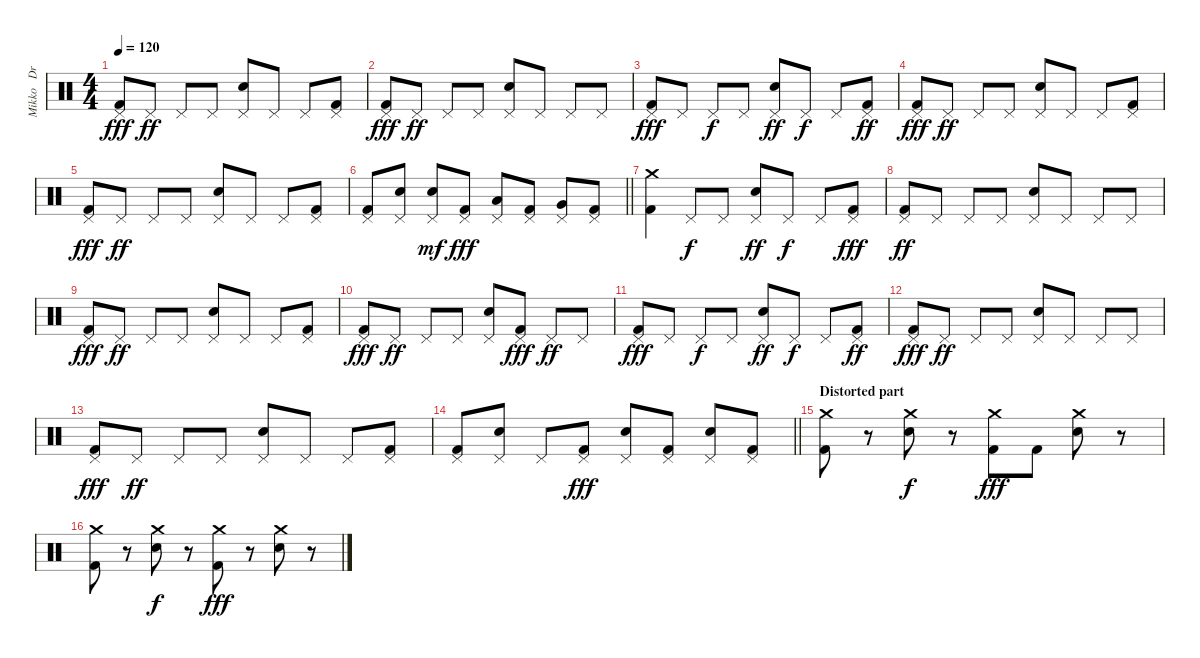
\track ("Mikko   Drums" "Mikko   Dr") {instrument percussion}
\staff {score}
\articulation defaults
\ts (4 4)
\tempo 120
\clef neutral
\ks c
("Pedal Hi-Hat (hit)" "Kick (hit) 2").8{dy fff} "Pedal Hi-Hat (hit)".8{dy ff} "Pedal Hi-Hat (hit)".8 "Pedal Hi-Hat (hit)".8 ("Pedal Hi-Hat (hit)" "Snare (hit) 2").8 "Pedal Hi-Hat (hit)".8 "Pedal Hi-Hat (hit)".8 ("Pedal Hi-Hat (hit)" "Kick (hit) 2").8 |
("Pedal Hi-Hat (hit)" "Kick (hit) 2").8{dy fff} "Pedal Hi-Hat (hit)".8{dy ff} "Pedal Hi-Hat (hit)".8 "Pedal Hi-Hat (hit)".8 ("Pedal Hi-Hat (hit)" "Snare (hit) 2").8 "Pedal Hi-Hat (hit)".8 "Pedal Hi-Hat (hit)".8 "Pedal Hi-Hat (hit)".8 |
("Pedal Hi-Hat (hit)" "Kick (hit) 2").8{dy fff} "Pedal Hi-Hat (hit)".8 "Pedal Hi-Hat (hit)".8{dy f} "Pedal Hi-Hat (hit)".8 ("Pedal Hi-Hat (hit)" "Snare (hit) 2").8{dy ff} "Pedal Hi-Hat (hit)".8{dy f} "Pedal Hi-Hat (hit)".8 ("Pedal Hi-Hat (hit)" "Kick (hit) 2").8{dy ff} |
("Pedal Hi-Hat (hit)" "Kick (hit) 2").8{dy fff} "Pedal Hi-Hat (hit)".8{dy ff} "Pedal Hi-Hat (hit)".8 "Pedal Hi-Hat (hit)".8 ("Pedal Hi-Hat (hit)" "Snare (hit) 2").8 "Pedal Hi-Hat (hit)".8 "Pedal Hi-Hat (hit)".8 ("Pedal Hi-Hat (hit)" "Kick (hit) 2").8 |
("Pedal Hi-Hat (hit)" "Kick (hit) 2").8{dy fff} "Pedal Hi-Hat (hit)".8{dy ff} "Pedal Hi-Hat (hit)".8 "Pedal Hi-Hat (hit)".8 ("Pedal Hi-Hat (hit)" "Snare (hit) 2").8 "Pedal Hi-Hat (hit)".8 "Pedal Hi-Hat (hit)".8 ("Pedal Hi-Hat (hit)" "Kick (hit) 2").8 |
\barLineRight lightlight
("Pedal Hi-Hat (hit)" "Kick (hit) 2").8 ("Pedal Hi-Hat (hit)" "Snare (hit) 2").8 ("Pedal Hi-Hat (hit)" "Snare (hit) 2").8{dy mf} ("Pedal Hi-Hat (hit)" "Kick (hit) 2").8{dy fff} ("Pedal Hi-Hat (hit)" "Low Tom (hit)").8 ("Pedal Hi-Hat (hit)" "Kick (hit) 2").8 ("Pedal Hi-Hat (hit)" "Very Low Tom (hit)").8 ("Pedal Hi-Hat (hit)" "Kick (hit) 2").8 |
("Crash medium (hit)" "Kick (hit) 2").4 "Pedal Hi-Hat (hit)".8{dy f} "Pedal Hi-Hat (hit)".8 ("Pedal Hi-Hat (hit)" "Snare (hit) 2").8{dy ff} "Pedal Hi-Hat (hit)".8{dy f} "Pedal Hi-Hat (hit)".8 ("Pedal Hi-Hat (hit)" "Kick (hit) 2").8{dy fff} |
("Pedal Hi-Hat (hit)" "Kick (hit) 2").8{dy ff} "Pedal Hi-Hat (hit)".8 "Pedal Hi-Hat (hit)".8 "Pedal Hi-Hat (hit)".8 ("Pedal Hi-Hat (hit)" "Snare (hit) 2").8 "Pedal Hi-Hat (hit)".8 "Pedal Hi-Hat (hit)".8 "Pedal Hi-Hat (hit)".8 |
("Pedal Hi-Hat (hit)" "Kick (hit) 2").8{dy fff} "Pedal Hi-Hat (hit)".8{dy ff} "Pedal Hi-Hat (hit)".8 "Pedal Hi-Hat (hit)".8 ("Pedal Hi-Hat (hit)" "Snare (hit) 2").8 "Pedal Hi-Hat (hit)".8 "Pedal Hi-Hat (hit)".8 ("Pedal Hi-Hat (hit)" "Kick (hit) 2").8 |
("Pedal Hi-Hat (hit)" "Kick (hit) 2").8{dy fff} "Pedal Hi-Hat (hit)".8{dy ff} "Pedal Hi-Hat (hit)".8 "Pedal Hi-Hat (hit)".8 ("Pedal Hi-Hat (hit)" "Snare (hit) 2").8 ("Pedal Hi-Hat (hit)" "Kick (hit) 2").8{dy fff} "Pedal Hi-Hat (hit)".8{dy ff} "Pedal Hi-Hat (hit)".8 |
("Pedal Hi-Hat (hit)" "Kick (hit) 2").8{dy fff} "Pedal Hi-Hat (hit)".8 "Pedal Hi-Hat (hit)".8{dy f} "Pedal Hi-Hat (hit)".8 ("Pedal Hi-Hat (hit)" "Snare (hit) 2").8{dy ff} "Pedal Hi-Hat (hit)".8{dy f} "Pedal Hi-Hat (hit)".8 ("Pedal Hi-Hat (hit)" "Kick (hit) 2").8{dy ff} |
("Pedal Hi-Hat (hit)" "Kick (hit) 2").8{dy fff} "Pedal Hi-Hat (hit)".8{dy ff} "Pedal Hi-Hat (hit)".8 "Pedal Hi-Hat (hit)".8 ("Pedal Hi-Hat (hit)" "Snare (hit) 2").8 "Pedal Hi-Hat (hit)".8 "Pedal Hi-Hat (hit)".8 "Pedal Hi-Hat (hit)".8 |
("Pedal Hi-Hat (hit)" "Kick (hit) 2").8{dy fff} "Pedal Hi-Hat (hit)".8{dy ff} "Pedal Hi-Hat (hit)".8 "Pedal Hi-Hat (hit)".8 ("Pedal Hi-Hat (hit)" "Snare (hit) 2").8 "Pedal Hi-Hat (hit)".8 "Pedal Hi-Hat (hit)".8 ("Pedal Hi-Hat (hit)" "Kick (hit) 2").8 |
\barLineRight lightlight
("Pedal Hi-Hat (hit)" "Kick (hit) 2").8 ("Pedal Hi-Hat (hit)" "Snare (hit) 2").8 "Pedal Hi-Hat (hit)".8 ("Pedal Hi-Hat (hit)" "Kick (hit) 2").8{dy fff} ("Pedal Hi-Hat (hit)" "Snare (hit) 2").8 ("Pedal Hi-Hat (hit)" "Kick (hit) 2").8 ("Pedal Hi-Hat (hit)" "Snare (hit) 2").8 ("Pedal Hi-Hat (hit)" "Kick (hit) 2").8 |
\section ("" "Distorted part")
("Crash medium (hit)" "Kick (hit) 2").8 r.8 ("Crash medium (hit)" "Snare (hit) 2").8{dy f} r.8 ("Crash medium (hit)" "Kick (hit) 2").8{dy fff} "Kick (hit) 2".8 ("Crash medium (hit)" "Snare (hit) 2").8 r.8 |
("Crash medium (hit)" "Kick (hit) 2").8 r.8 ("Crash medium (hit)" "Snare (hit) 2").8{dy f} r.8 ("Crash medium (hit)" "Kick (hit) 2").8{dy fff} r.8 ("Crash medium (hit)" "Snare (hit) 2").8 r.8
